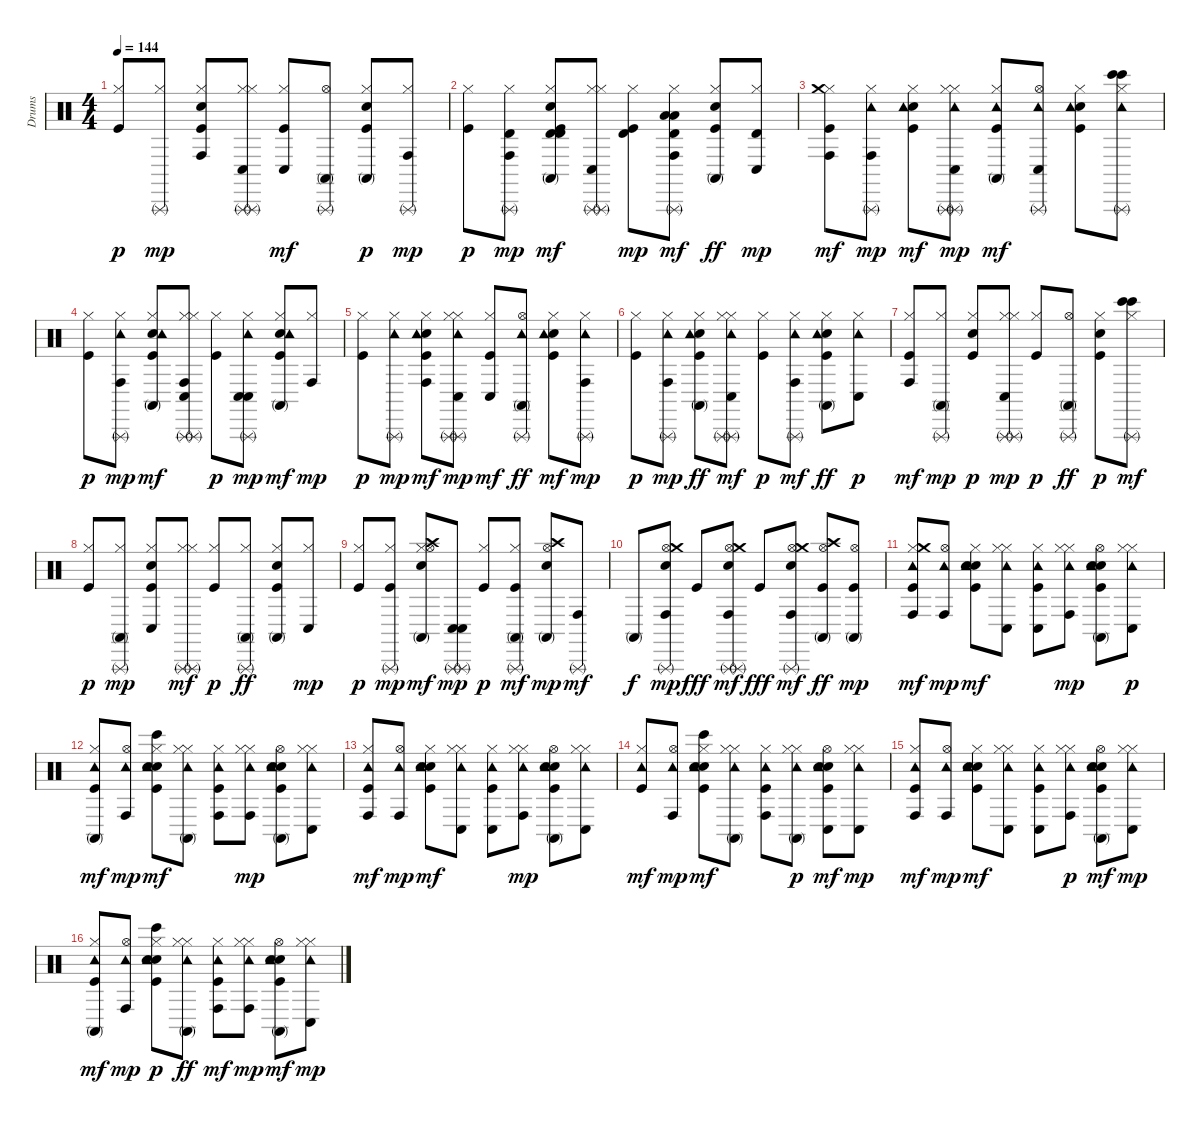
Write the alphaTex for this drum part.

\track ("Drums" "Drums") {instrument percussion}
\staff {score}
\articulation defaults
\ts (4 4)
\tempo 144
\clef neutral
\ks c
("Kick (hit)" "Hi-Hat (closed)").8{dy p} ("Hi-Hat (closed)" "Triangle (rnute)").8{dy mp} ("Kick (hit)" "Snare (hit) 2" "Hi-Hat (closed)" "Conga high (hit)").8 ("Hi-Hat (closed)" "Conga low (hit)" "Triangle (rnute)" "Hi-Hat (closed)" "Triangle (rnute)").8 ("Kick (hit)" "Hi-Hat (closed)" "Conga low (hit)").8{dy mf} ("Hi-Hat (open)" "Conga high (mute)" "Triangle (rnute)").8 ("Kick (hit)" "Snare (hit) 2" "Hi-Hat (closed)" "Conga high (mute)").8{dy p} ("Hi-Hat (closed)" "Conga high (hit)" "Triangle (rnute)").8{dy mp} |
("Kick (hit)" "Hi-Hat (closed)").8{dy p} ("Hi-Hat (closed)" "Conga high (hit)" "Timbale high (hit)" "Triangle (rnute)").8{dy mp} ("Kick (hit)" "Snare (hit) 2" "Hi-Hat (closed)" "Conga high (mute)" "Timbale high (hit)" "Timbale high (hit)").8{dy mf} ("Hi-Hat (closed)" "Conga low (hit)" "Triangle (rnute)" "Hi-Hat (closed)" "Triangle (rnute)").8 ("Kick (hit)" "Hi-Hat (closed)" "Timbale high (hit)").8{dy mp} ("Hi-Hat (closed)" "Low Tom (hit)" "Conga high (hit)" "Timbale high (hit)" "Triangle (rnute)" "Low Tom (hit)").8{dy mf} ("Kick (hit)" "Snare (hit) 2" "Hi-Hat (closed)" "Conga high (mute)").8{dy ff} ("Hi-Hat (closed)" "Conga low (hit)" "Timbale high (hit)").8{dy mp} |
("Kick (hit)" "Hi-Hat (closed)" "Crash medium (hit)" "Conga high (hit)").8{dy mf} ("Hi-Hat (closed)" "Tambourine (hit)" "Conga high (hit)" "Triangle (rnute)").8{dy mp} ("Kick (hit)" "Snare (hit) 2" "Hi-Hat (closed)" "Tambourine (hit)").8{dy mf} ("Hi-Hat (closed)" "Tambourine (hit)" "Conga low (hit)" "Triangle (rnute)" "Hi-Hat (closed)" "Triangle (rnute)").8{dy mp} ("Kick (hit)" "Hi-Hat (closed)" "Tambourine (hit)" "Conga high (mute)").8{dy mf} ("Hi-Hat (open)" "Tambourine (hit)" "Conga low (hit)" "Triangle (rnute)").8 ("Kick (hit)" "Snare (hit) 2" "Hi-Hat (closed)" "Tambourine (hit)").8 ("Hi-Hat (closed)" "Tambourine (hit)" "Bongo High (hit)" "Triangle (rnute)" "Bongo High (hit)").8 |
("Kick (hit)" "Hi-Hat (closed)").8{dy p} ("Hi-Hat (closed)" "Tambourine (hit)" "Conga high (hit)" "Triangle (rnute)").8{dy mp} ("Kick (hit)" "Snare (hit) 2" "Hi-Hat (closed)" "Tambourine (hit)" "Conga high (mute)").8{dy mf} ("Hi-Hat (closed)" "Conga high (hit)" "Triangle (rnute)" "Hi-Hat (closed)" "Conga low (hit)" "Triangle (rnute)").8 ("Kick (hit)" "Hi-Hat (closed)").8{dy p} ("Hi-Hat (closed)" "Tambourine (hit)" "Conga low (hit)" "Triangle (rnute)" "Conga low (hit)").8{dy mp} ("Kick (hit)" "Snare (hit) 2" "Hi-Hat (closed)" "Tambourine (hit)" "Conga high (mute)").8{dy mf} ("Hi-Hat (closed)" "Conga high (hit)").8{dy mp} |
("Kick (hit)" "Hi-Hat (closed)").8{dy p} ("Hi-Hat (closed)" "Tambourine (hit)" "Triangle (rnute)").8{dy mp} ("Kick (hit)" "Snare (hit) 2" "Hi-Hat (closed)" "Tambourine (hit)" "Conga high (hit)").8{dy mf} ("Hi-Hat (closed)" "Tambourine (hit)" "Conga low (hit)" "Triangle (rnute)" "Hi-Hat (closed)" "Triangle (rnute)").8{dy mp} ("Kick (hit)" "Hi-Hat (closed)" "Conga low (hit)").8{dy mf} ("Hi-Hat (open)" "Tambourine (hit)" "Conga high (mute)" "Triangle (rnute)").8{dy ff} ("Kick (hit)" "Snare (hit) 2" "Hi-Hat (closed)" "Tambourine (hit)").8{dy mf} ("Hi-Hat (closed)" "Tambourine (hit)" "Conga high (hit)" "Triangle (rnute)").8{dy mp} |
("Kick (hit)" "Hi-Hat (closed)").8{dy p} ("Hi-Hat (closed)" "Tambourine (hit)" "Conga high (hit)" "Triangle (rnute)").8{dy mp} ("Kick (hit)" "Snare (hit) 2" "Hi-Hat (closed)" "Tambourine (hit)" "Conga high (mute)").8{dy ff} ("Hi-Hat (closed)" "Tambourine (hit)" "Conga low (hit)" "Triangle (rnute)" "Hi-Hat (closed)" "Triangle (rnute)").8{dy mf} ("Kick (hit)" "Hi-Hat (closed)").8{dy p} ("Hi-Hat (closed)" "Tambourine (hit)" "Conga high (hit)" "Triangle (rnute)").8{dy mf} ("Kick (hit)" "Snare (hit) 2" "Hi-Hat (closed)" "Tambourine (hit)" "Conga high (mute)").8{dy ff} ("Hi-Hat (closed)" "Tambourine (hit)" "Conga low (hit)").8{dy p} |
("Kick (hit)" "Hi-Hat (closed)" "Conga high (hit)").8{dy mf} ("Hi-Hat (closed)" "Conga high (mute)" "Triangle (rnute)").8{dy mp} ("Kick (hit)" "Snare (hit) 2" "Hi-Hat (closed)").8{dy p} ("Hi-Hat (closed)" "Conga low (hit)" "Triangle (rnute)" "Hi-Hat (closed)" "Triangle (rnute)").8{dy mp} ("Kick (hit)" "Hi-Hat (closed)").8{dy p} ("Hi-Hat (open)" "Conga high (mute)" "Triangle (rnute)").8{dy ff} ("Kick (hit)" "Snare (hit) 2" "Hi-Hat (closed)").8{dy p} ("Hi-Hat (closed)" "Bongo High (hit)" "Triangle (rnute)" "Bongo High (hit)").8{dy mf} |
("Kick (hit)" "Hi-Hat (closed)").8{dy p} ("Hi-Hat (closed)" "Conga high (mute)" "Triangle (rnute)").8{dy mp} ("Kick (hit)" "Snare (hit) 2" "Hi-Hat (closed)" "Conga low (hit)").8 ("Hi-Hat (closed)" "Triangle (rnute)" "Hi-Hat (closed)" "Triangle (rnute)").8{dy mf} ("Kick (hit)" "Hi-Hat (closed)").8{dy p} ("Hi-Hat (closed)" "Conga high (mute)" "Triangle (rnute)").8{dy ff} ("Kick (hit)" "Snare (hit) 2" "Hi-Hat (closed)" "Conga high (mute)").8 ("Hi-Hat (closed)" "Conga low (hit)").8{dy mp} |
("Kick (hit)" "Hi-Hat (closed)").8{dy p} ("Kick (hit)" "Hi-Hat (closed)" "Triangle (rnute)").8{dy mp} ("Snare (hit) 2" "Hi-Hat (closed)" "Hi-Hat (open)" "Crash high (hit)" "Conga high (mute)").8{dy mf} ("Conga low (hit)" "Triangle (rnute)" "Conga low (hit)" "Triangle (rnute)").8{dy mp} ("Kick (hit)" "Hi-Hat (closed)").8{dy p} ("Kick (hit)" "Hi-Hat (closed)" "Conga high (mute)" "Triangle (rnute)").8{dy mf} ("Snare (hit) 2" "Hi-Hat (open)" "Crash high (hit)" "Conga high (mute)").8{dy mp} ("Conga high (hit)" "Triangle (rnute)").8{dy mf} |
"Conga high (mute)".8{dy f} ("Snare (hit) 2" "Hi-Hat (open)" "Crash medium (hit)" "Conga high (hit)" "Triangle (rnute)").8{dy mp} "Kick (hit)".8{dy fff} ("Snare (hit) 2" "Hi-Hat (open)" "Crash medium (hit)" "Conga high (hit)" "Triangle (rnute)" "Triangle (rnute)").8{dy mf} "Kick (hit)".8{dy fff} ("Snare (hit) 2" "Hi-Hat (open)" "Crash medium (hit)" "Conga high (hit)" "Triangle (rnute)").8{dy mf} ("Kick (hit)" "Hi-Hat (open)" "Crash high (hit)" "Conga high (mute)").8{dy ff} ("Kick (hit)" "Hi-Hat (open)" "Conga high (mute)").8{dy mp} |
("Kick (hit)" "Hi-Hat (closed)" "Tambourine (hit)" "Crash medium (hit)" "Conga high (hit)").8{dy mf} ("Hi-Hat (open)" "Tambourine (hit)" "Conga high (hit)").8{dy mp} ("Kick (hit)" "Snare (hit) 2" "Hand Clap (hit)" "Hi-Hat (closed)" "Tambourine (hit)").8{dy mf} ("Hi-Hat (closed)" "Tambourine (hit)" "Conga low (hit)" "Hi-Hat (closed)").8 ("Kick (hit)" "Hi-Hat (closed)" "Tambourine (hit)" "Conga low (hit)").8 ("Hi-Hat (closed)" "Tambourine (hit)" "Conga high (hit)" "Hi-Hat (closed)").8{dy mp} ("Kick (hit)" "Snare (hit) 2" "Hand Clap (hit)" "Hi-Hat (open)" "Tambourine (hit)" "Conga high (mute)").8 ("Hi-Hat (closed)" "Tambourine (hit)" "Conga low (hit)" "Hi-Hat (closed)").8{dy p} |
("Kick (hit)" "Hi-Hat (closed)" "Tambourine (hit)" "Conga high (mute)").8{dy mf} ("Hi-Hat (open)" "Tambourine (hit)" "Conga high (hit)").8{dy mp} ("Kick (hit)" "Snare (hit) 2" "Hand Clap (hit)" "Hi-Hat (closed)" "Tambourine (hit)" "Bongo High (hit)").8{dy mf} ("Hi-Hat (closed)" "Tambourine (hit)" "Conga high (mute)" "Hi-Hat (closed)").8 ("Kick (hit)" "Hi-Hat (closed)" "Tambourine (hit)" "Conga high (hit)").8 ("Hi-Hat (closed)" "Tambourine (hit)" "Conga high (hit)" "Hi-Hat (closed)").8{dy mp} ("Kick (hit)" "Snare (hit) 2" "Hand Clap (hit)" "Hi-Hat (open)" "Tambourine (hit)" "Conga high (mute)").8 ("Hi-Hat (closed)" "Tambourine (hit)" "Conga low (hit)" "Hi-Hat (closed)").8 |
("Kick (hit)" "Hi-Hat (closed)" "Tambourine (hit)" "Conga high (hit)").8{dy mf} ("Hi-Hat (open)" "Tambourine (hit)" "Conga high (hit)").8{dy mp} ("Kick (hit)" "Snare (hit) 2" "Hand Clap (hit)" "Hi-Hat (closed)" "Tambourine (hit)").8{dy mf} ("Hi-Hat (closed)" "Tambourine (hit)" "Conga low (hit)" "Hi-Hat (closed)").8 ("Kick (hit)" "Hi-Hat (closed)" "Tambourine (hit)" "Conga low (hit)").8 ("Hi-Hat (closed)" "Tambourine (hit)" "Conga high (hit)" "Hi-Hat (closed)").8{dy mp} ("Kick (hit)" "Snare (hit) 2" "Hand Clap (hit)" "Hi-Hat (open)" "Tambourine (hit)" "Conga high (mute)").8 ("Hi-Hat (closed)" "Tambourine (hit)" "Conga low (hit)" "Hi-Hat (closed)").8 |
("Kick (hit)" "Hi-Hat (closed)" "Tambourine (hit)").8{dy mf} ("Hi-Hat (open)" "Tambourine (hit)" "Conga high (hit)").8{dy mp} ("Kick (hit)" "Snare (hit) 2" "Hand Clap (hit)" "Hi-Hat (closed)" "Tambourine (hit)" "Bongo High (hit)").8{dy mf} ("Hi-Hat (closed)" "Tambourine (hit)" "Conga high (mute)" "Hi-Hat (closed)").8 ("Kick (hit)" "Hi-Hat (closed)" "Tambourine (hit)" "Conga high (hit)").8 ("Hi-Hat (closed)" "Tambourine (hit)" "Conga high (mute)" "Hi-Hat (closed)").8{dy p} ("Kick (hit)" "Snare (hit) 2" "Hand Clap (hit)" "Hi-Hat (open)" "Tambourine (hit)" "Conga low (hit)").8{dy mf} ("Hi-Hat (closed)" "Tambourine (hit)" "Conga low (hit)" "Hi-Hat (closed)").8{dy mp} |
("Kick (hit)" "Hi-Hat (closed)" "Tambourine (hit)" "Conga high (hit)").8{dy mf} ("Hi-Hat (open)" "Tambourine (hit)" "Conga high (hit)").8{dy mp} ("Kick (hit)" "Snare (hit) 2" "Hand Clap (hit)" "Hi-Hat (closed)" "Tambourine (hit)").8{dy mf} ("Hi-Hat (closed)" "Tambourine (hit)" "Conga low (hit)" "Hi-Hat (closed)").8 ("Kick (hit)" "Hi-Hat (closed)" "Tambourine (hit)" "Conga low (hit)").8 ("Hi-Hat (closed)" "Tambourine (hit)" "Conga high (hit)" "Hi-Hat (closed)").8{dy p} ("Kick (hit)" "Snare (hit) 2" "Hand Clap (hit)" "Hi-Hat (open)" "Tambourine (hit)" "Conga high (mute)").8{dy mf} ("Hi-Hat (closed)" "Tambourine (hit)" "Conga low (hit)" "Hi-Hat (closed)").8{dy mp} |
("Kick (hit)" "Hi-Hat (closed)" "Tambourine (hit)" "Conga high (mute)").8{dy mf} ("Hi-Hat (open)" "Tambourine (hit)" "Conga high (hit)").8{dy mp} ("Kick (hit)" "Snare (hit) 2" "Hand Clap (hit)" "Hi-Hat (closed)" "Tambourine (hit)" "Bongo High (hit)").8{dy p} ("Hi-Hat (closed)" "Tambourine (hit)" "Conga high (mute)" "Hi-Hat (closed)").8{dy ff} ("Kick (hit)" "Hi-Hat (closed)" "Tambourine (hit)" "Conga high (hit)").8{dy mf} ("Hi-Hat (closed)" "Tambourine (hit)" "Conga high (hit)" "Hi-Hat (closed)").8{dy mp} ("Kick (hit)" "Snare (hit) 2" "Hand Clap (hit)" "Hi-Hat (open)" "Tambourine (hit)" "Conga high (mute)").8{dy mf} ("Hi-Hat (closed)" "Tambourine (hit)" "Conga low (hit)" "Hi-Hat (closed)").8{dy mp}
